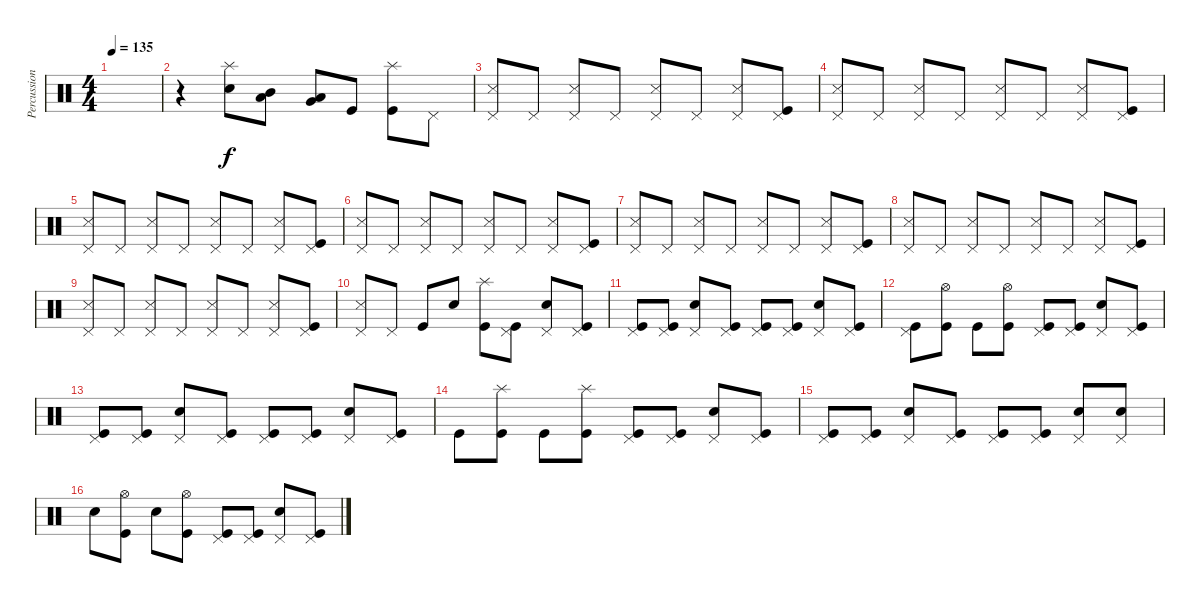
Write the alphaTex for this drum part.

\track ("Percussion" "Percussion") {instrument percussion}
\staff {score}
\articulation defaults
\ts (4 4)
\tempo 135
\clef neutral
\ks c
|
r.4 ("Splash (hit)" "Electric Snare (hit)").8 ("Low Tom (hit)" "Mid Tom (hit)").8 ("Very Low Tom (hit)" "Low Tom (hit)").8 "Kick (hit)".8 ("Splash (hit)" "Kick (hit)").8 "Pedal Hi-Hat (hit)".8 |
("Snare (side stick) 3" "Pedal Hi-Hat (hit)").8 "Pedal Hi-Hat (hit)".8 ("Snare (side stick) 3" "Pedal Hi-Hat (hit)").8 "Pedal Hi-Hat (hit)".8 ("Snare (side stick) 3" "Pedal Hi-Hat (hit)").8 "Pedal Hi-Hat (hit)".8 ("Snare (side stick) 3" "Pedal Hi-Hat (hit)").8 ("Kick (hit)" "Pedal Hi-Hat (hit)").8 |
("Snare (side stick) 3" "Pedal Hi-Hat (hit)").8 "Pedal Hi-Hat (hit)".8 ("Snare (side stick) 3" "Pedal Hi-Hat (hit)").8 "Pedal Hi-Hat (hit)".8 ("Snare (side stick) 3" "Pedal Hi-Hat (hit)").8 "Pedal Hi-Hat (hit)".8 ("Snare (side stick) 3" "Pedal Hi-Hat (hit)").8 ("Kick (hit)" "Pedal Hi-Hat (hit)").8 |
("Snare (side stick) 3" "Pedal Hi-Hat (hit)").8 "Pedal Hi-Hat (hit)".8 ("Snare (side stick) 3" "Pedal Hi-Hat (hit)").8 "Pedal Hi-Hat (hit)".8 ("Snare (side stick) 3" "Pedal Hi-Hat (hit)").8 "Pedal Hi-Hat (hit)".8 ("Snare (side stick) 3" "Pedal Hi-Hat (hit)").8 ("Kick (hit)" "Pedal Hi-Hat (hit)").8 |
("Snare (side stick) 3" "Pedal Hi-Hat (hit)").8 "Pedal Hi-Hat (hit)".8 ("Snare (side stick) 3" "Pedal Hi-Hat (hit)").8 "Pedal Hi-Hat (hit)".8 ("Snare (side stick) 3" "Pedal Hi-Hat (hit)").8 "Pedal Hi-Hat (hit)".8 ("Snare (side stick) 3" "Pedal Hi-Hat (hit)").8 ("Kick (hit)" "Pedal Hi-Hat (hit)").8 |
("Snare (side stick) 3" "Pedal Hi-Hat (hit)").8 "Pedal Hi-Hat (hit)".8 ("Snare (side stick) 3" "Pedal Hi-Hat (hit)").8 "Pedal Hi-Hat (hit)".8 ("Snare (side stick) 3" "Pedal Hi-Hat (hit)").8 "Pedal Hi-Hat (hit)".8 ("Snare (side stick) 3" "Pedal Hi-Hat (hit)").8 ("Kick (hit)" "Pedal Hi-Hat (hit)").8 |
("Snare (side stick) 3" "Pedal Hi-Hat (hit)").8 "Pedal Hi-Hat (hit)".8 ("Snare (side stick) 3" "Pedal Hi-Hat (hit)").8 "Pedal Hi-Hat (hit)".8 ("Snare (side stick) 3" "Pedal Hi-Hat (hit)").8 "Pedal Hi-Hat (hit)".8 ("Snare (side stick) 3" "Pedal Hi-Hat (hit)").8 ("Kick (hit)" "Pedal Hi-Hat (hit)").8 |
("Snare (side stick) 3" "Pedal Hi-Hat (hit)").8 "Pedal Hi-Hat (hit)".8 ("Snare (side stick) 3" "Pedal Hi-Hat (hit)").8 "Pedal Hi-Hat (hit)".8 ("Snare (side stick) 3" "Pedal Hi-Hat (hit)").8 "Pedal Hi-Hat (hit)".8 ("Snare (side stick) 3" "Pedal Hi-Hat (hit)").8 ("Kick (hit)" "Pedal Hi-Hat (hit)").8 |
("Snare (side stick) 3" "Pedal Hi-Hat (hit)").8 "Pedal Hi-Hat (hit)".8 "Kick (hit)".8 "Electric Snare (hit)".8 ("Splash (hit)" "Kick (hit)").8 ("Kick (hit)" "Pedal Hi-Hat (hit)").8 ("Electric Snare (hit)" "Pedal Hi-Hat (hit)").8 ("Kick (hit)" "Pedal Hi-Hat (hit)").8 |
("Kick (hit)" "Pedal Hi-Hat (hit)").8 ("Kick (hit)" "Pedal Hi-Hat (hit)").8 ("Electric Snare (hit)" "Pedal Hi-Hat (hit)").8 ("Kick (hit)" "Pedal Hi-Hat (hit)").8 ("Kick (hit)" "Pedal Hi-Hat (hit)").8 ("Kick (hit)" "Pedal Hi-Hat (hit)").8 ("Electric Snare (hit)" "Pedal Hi-Hat (hit)").8 ("Kick (hit)" "Pedal Hi-Hat (hit)").8 |
("Kick (hit)" "Pedal Hi-Hat (hit)").8 ("Kick (hit)" "Hi-Hat (open)").8 "Kick (hit)".8 ("Kick (hit)" "Hi-Hat (open)").8 ("Pedal Hi-Hat (hit)" "Kick (hit)").8 ("Pedal Hi-Hat (hit)" "Kick (hit)").8 ("Pedal Hi-Hat (hit)" "Electric Snare (hit)").8 ("Pedal Hi-Hat (hit)" "Kick (hit)").8 |
("Pedal Hi-Hat (hit)" "Kick (hit)").8 ("Pedal Hi-Hat (hit)" "Kick (hit)").8 ("Pedal Hi-Hat (hit)" "Electric Snare (hit)").8 ("Pedal Hi-Hat (hit)" "Kick (hit)").8 ("Pedal Hi-Hat (hit)" "Kick (hit)").8 ("Pedal Hi-Hat (hit)" "Kick (hit)").8 ("Pedal Hi-Hat (hit)" "Electric Snare (hit)").8 ("Pedal Hi-Hat (hit)" "Kick (hit)").8 |
"Kick (hit)".8 ("Splash (hit)" "Kick (hit)").8 "Kick (hit)".8 ("Splash (hit)" "Kick (hit)").8 ("Kick (hit)" "Pedal Hi-Hat (hit)").8 ("Kick (hit)" "Pedal Hi-Hat (hit)").8 ("Electric Snare (hit)" "Pedal Hi-Hat (hit)").8 ("Kick (hit)" "Pedal Hi-Hat (hit)").8 |
("Kick (hit)" "Pedal Hi-Hat (hit)").8 ("Kick (hit)" "Pedal Hi-Hat (hit)").8 ("Pedal Hi-Hat (hit)" "Electric Snare (hit)").8 ("Kick (hit)" "Pedal Hi-Hat (hit)").8 ("Kick (hit)" "Pedal Hi-Hat (hit)").8 ("Kick (hit)" "Pedal Hi-Hat (hit)").8 ("Electric Snare (hit)" "Pedal Hi-Hat (hit)").8 ("Electric Snare (hit)" "Pedal Hi-Hat (hit)").8 |
"Electric Snare (hit)".8 ("Hi-Hat (open)" "Kick (hit)").8 "Electric Snare (hit)".8 ("Hi-Hat (open)" "Kick (hit)").8 ("Pedal Hi-Hat (hit)" "Kick (hit)").8 ("Pedal Hi-Hat (hit)" "Kick (hit)").8 ("Pedal Hi-Hat (hit)" "Electric Snare (hit)").8 ("Pedal Hi-Hat (hit)" "Kick (hit)").8
